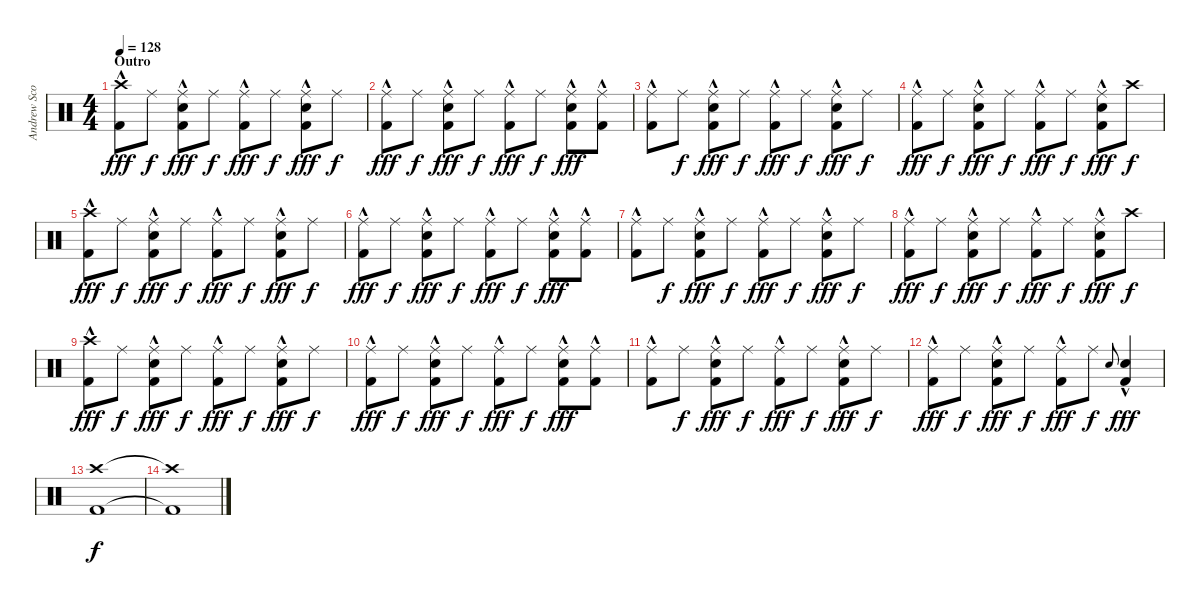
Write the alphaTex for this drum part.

\track ("Andrew Scott" "Andrew Sco") {instrument percussion}
\staff {score}
\articulation defaults
\ts (4 4)
\section ("" "Outro")
\tempo 128
\clef neutral
\ks c
("Crash high (hit)" "Kick (hit) 2"{hac}).8{dy fff} "Ride (middle)".8{dy f} ("Ride (middle)" "Snare (hit) 2" "Kick (hit) 2"{hac}).8{dy fff} "Ride (middle)".8{dy f} ("Ride (middle)" "Kick (hit) 2"{hac}).8{dy fff} "Ride (middle)".8{dy f} ("Ride (middle)" "Snare (hit) 2" "Kick (hit) 2"{hac}).8{dy fff} "Ride (middle)".8{dy f} |
("Ride (middle)" "Kick (hit) 2"{hac}).8{dy fff} "Ride (middle)".8{dy f} ("Ride (middle)" "Snare (hit) 2" "Kick (hit) 2"{hac}).8{dy fff} "Ride (middle)".8{dy f} ("Ride (middle)" "Kick (hit) 2"{hac}).8{dy fff} "Ride (middle)".8{dy f} ("Ride (middle)" "Snare (hit) 2" "Kick (hit) 2"{hac}).8{dy fff} ("Ride (middle)" "Kick (hit) 2"{hac}).8 |
("Ride (middle)" "Kick (hit) 2"{hac}).8 "Ride (middle)".8{dy f} ("Ride (middle)" "Snare (hit) 2" "Kick (hit) 2"{hac}).8{dy fff} "Ride (middle)".8{dy f} ("Ride (middle)" "Kick (hit) 2"{hac}).8{dy fff} "Ride (middle)".8{dy f} ("Ride (middle)" "Snare (hit) 2" "Kick (hit) 2"{hac}).8{dy fff} "Ride (middle)".8{dy f} |
("Ride (middle)" "Kick (hit) 2"{hac}).8{dy fff} "Ride (middle)".8{dy f} ("Ride (middle)" "Snare (hit) 2" "Kick (hit) 2"{hac}).8{dy fff} "Ride (middle)".8{dy f} ("Ride (middle)" "Kick (hit) 2"{hac}).8{dy fff} "Ride (middle)".8{dy f} ("Ride (middle)" "Snare (hit) 2" "Kick (hit) 2"{hac}).8{dy fff} "Crash high (hit)".8{dy f} |
("Crash high (hit)" "Kick (hit) 2"{hac}).8{dy fff} "Ride (middle)".8{dy f} ("Ride (middle)" "Snare (hit) 2" "Kick (hit) 2"{hac}).8{dy fff} "Ride (middle)".8{dy f} ("Ride (middle)" "Kick (hit) 2"{hac}).8{dy fff} "Ride (middle)".8{dy f} ("Ride (middle)" "Snare (hit) 2" "Kick (hit) 2"{hac}).8{dy fff} "Ride (middle)".8{dy f} |
("Ride (middle)" "Kick (hit) 2"{hac}).8{dy fff} "Ride (middle)".8{dy f} ("Ride (middle)" "Snare (hit) 2" "Kick (hit) 2"{hac}).8{dy fff} "Ride (middle)".8{dy f} ("Ride (middle)" "Kick (hit) 2"{hac}).8{dy fff} "Ride (middle)".8{dy f} ("Ride (middle)" "Snare (hit) 2" "Kick (hit) 2"{hac}).8{dy fff} ("Ride (middle)" "Kick (hit) 2"{hac}).8 |
("Ride (middle)" "Kick (hit) 2"{hac}).8 "Ride (middle)".8{dy f} ("Ride (middle)" "Snare (hit) 2" "Kick (hit) 2"{hac}).8{dy fff} "Ride (middle)".8{dy f} ("Ride (middle)" "Kick (hit) 2"{hac}).8{dy fff} "Ride (middle)".8{dy f} ("Ride (middle)" "Snare (hit) 2" "Kick (hit) 2"{hac}).8{dy fff} "Ride (middle)".8{dy f} |
("Ride (middle)" "Kick (hit) 2"{hac}).8{dy fff} "Ride (middle)".8{dy f} ("Ride (middle)" "Snare (hit) 2" "Kick (hit) 2"{hac}).8{dy fff} "Ride (middle)".8{dy f} ("Ride (middle)" "Kick (hit) 2"{hac}).8{dy fff} "Ride (middle)".8{dy f} ("Ride (middle)" "Snare (hit) 2" "Kick (hit) 2"{hac}).8{dy fff} "Crash high (hit)".8{dy f} |
("Crash high (hit)" "Kick (hit) 2"{hac}).8{dy fff} "Ride (middle)".8{dy f} ("Ride (middle)" "Snare (hit) 2" "Kick (hit) 2"{hac}).8{dy fff} "Ride (middle)".8{dy f} ("Ride (middle)" "Kick (hit) 2"{hac}).8{dy fff} "Ride (middle)".8{dy f} ("Ride (middle)" "Snare (hit) 2" "Kick (hit) 2"{hac}).8{dy fff} "Ride (middle)".8{dy f} |
("Ride (middle)" "Kick (hit) 2"{hac}).8{dy fff} "Ride (middle)".8{dy f} ("Ride (middle)" "Snare (hit) 2" "Kick (hit) 2"{hac}).8{dy fff} "Ride (middle)".8{dy f} ("Ride (middle)" "Kick (hit) 2"{hac}).8{dy fff} "Ride (middle)".8{dy f} ("Ride (middle)" "Snare (hit) 2" "Kick (hit) 2"{hac}).8{dy fff} ("Ride (middle)" "Kick (hit) 2"{hac}).8 |
("Ride (middle)" "Kick (hit) 2"{hac}).8 "Ride (middle)".8{dy f} ("Ride (middle)" "Snare (hit) 2" "Kick (hit) 2"{hac}).8{dy fff} "Ride (middle)".8{dy f} ("Ride (middle)" "Kick (hit) 2"{hac}).8{dy fff} "Ride (middle)".8{dy f} ("Ride (middle)" "Snare (hit) 2" "Kick (hit) 2"{hac}).8{dy fff} "Ride (middle)".8{dy f} |
("Ride (middle)" "Kick (hit) 2"{hac}).8{dy fff} "Ride (middle)".8{dy f} ("Ride (middle)" "Snare (hit) 2" "Kick (hit) 2"{hac}).8{dy fff} "Ride (middle)".8{dy f} ("Ride (middle)" "Kick (hit) 2"{hac}).8{dy fff} "Ride (middle)".8{dy f} "Snare (hit) 2".8{gr onbeat} ("Snare (hit) 2" "Kick (hit) 2"{hac}).4{dy fff} |
("Crash high (hit)" "Kick (hit) 2").1{dy f} |
("Crash high (hit)"{t} "Kick (hit) 2"{t}).1
